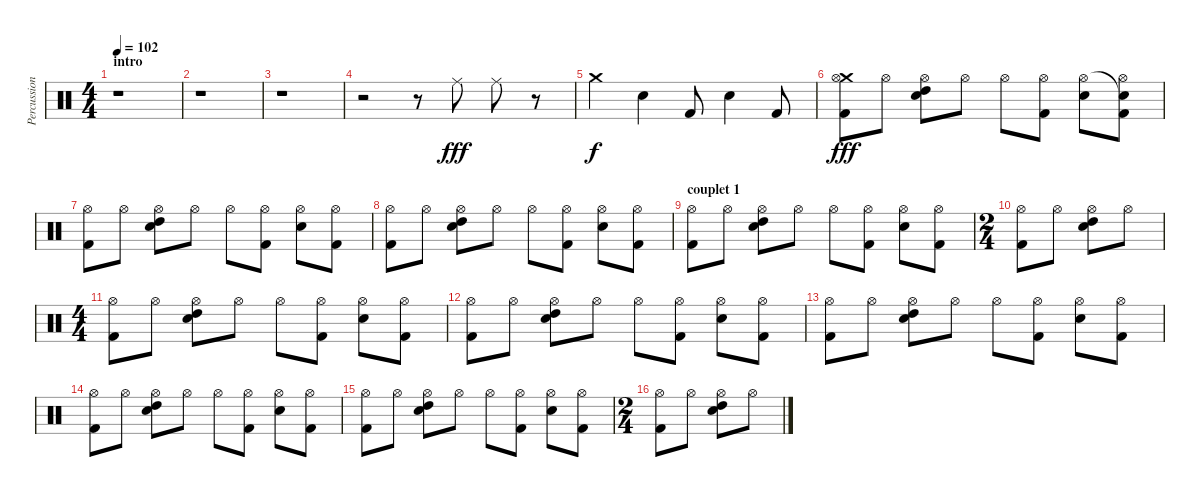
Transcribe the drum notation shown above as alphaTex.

\track ("Percussions" "Percussion") {instrument percussion}
\staff {score}
\articulation defaults
\ts (4 4)
\section ("" "intro")
\tempo 102
\clef neutral
\ks c
r.1{dy fff} |
r.1 |
r.1 |
r.2 r.8 "Ride (middle)".8 "Ride (middle)".8 r.8 |
"Crash medium (hit)".4{dy f} "Electric Snare (hit)".4 "Kick (hit) 2".8 "Electric Snare (hit)".4 "Kick (hit) 2".8 |
("Crash medium (hit)" "Hi-Hat (open)" "Kick (hit) 2").8{dy fff} "Hi-Hat (open)".8 ("Hi-Hat (open)" "High Tom (hit)" "Electric Snare (hit)").8 "Hi-Hat (open)".8 "Hi-Hat (open)".8 ("Hi-Hat (open)" "Kick (hit) 2").8 ("Hi-Hat (open)" "Electric Snare (hit)").8 ("Snare (hit)"{t} "Hi-Hat (open)" "Kick (hit) 2").8 |
("Hi-Hat (open)" "Kick (hit) 2").8 "Hi-Hat (open)".8 ("Hi-Hat (open)" "High Tom (hit)" "Electric Snare (hit)").8 "Hi-Hat (open)".8 "Hi-Hat (open)".8 ("Hi-Hat (open)" "Kick (hit) 2").8 ("Hi-Hat (open)" "Electric Snare (hit)").8 ("Hi-Hat (open)" "Kick (hit) 2").8 |
("Hi-Hat (open)" "Kick (hit) 2").8 "Hi-Hat (open)".8 ("Hi-Hat (open)" "High Tom (hit)" "Electric Snare (hit)").8 "Hi-Hat (open)".8 "Hi-Hat (open)".8 ("Hi-Hat (open)" "Kick (hit) 2").8 ("Hi-Hat (open)" "Electric Snare (hit)").8 ("Hi-Hat (open)" "Kick (hit) 2").8 |
\section ("" "couplet 1")
("Hi-Hat (open)" "Kick (hit) 2").8 "Hi-Hat (open)".8 ("Hi-Hat (open)" "High Tom (hit)" "Electric Snare (hit)").8 "Hi-Hat (open)".8 "Hi-Hat (open)".8 ("Hi-Hat (open)" "Kick (hit) 2").8 ("Hi-Hat (open)" "Electric Snare (hit)").8 ("Hi-Hat (open)" "Kick (hit) 2").8 |
\ts (2 4)
("Hi-Hat (open)" "Kick (hit) 2").8 "Hi-Hat (open)".8 ("Hi-Hat (open)" "High Tom (hit)" "Electric Snare (hit)").8 "Hi-Hat (open)".8 |
\ts (4 4)
("Hi-Hat (open)" "Kick (hit) 2").8 "Hi-Hat (open)".8 ("Hi-Hat (open)" "High Tom (hit)" "Electric Snare (hit)").8 "Hi-Hat (open)".8 "Hi-Hat (open)".8 ("Hi-Hat (open)" "Kick (hit) 2").8 ("Hi-Hat (open)" "Electric Snare (hit)").8 ("Hi-Hat (open)" "Kick (hit) 2").8 |
("Hi-Hat (open)" "Kick (hit) 2").8 "Hi-Hat (open)".8 ("Hi-Hat (open)" "High Tom (hit)" "Electric Snare (hit)").8 "Hi-Hat (open)".8 "Hi-Hat (open)".8 ("Hi-Hat (open)" "Kick (hit) 2").8 ("Hi-Hat (open)" "Electric Snare (hit)").8 ("Hi-Hat (open)" "Kick (hit) 2").8 |
("Hi-Hat (open)" "Kick (hit) 2").8 "Hi-Hat (open)".8 ("Hi-Hat (open)" "High Tom (hit)" "Electric Snare (hit)").8 "Hi-Hat (open)".8 "Hi-Hat (open)".8 ("Hi-Hat (open)" "Kick (hit) 2").8 ("Hi-Hat (open)" "Electric Snare (hit)").8 ("Hi-Hat (open)" "Kick (hit) 2").8 |
("Hi-Hat (open)" "Kick (hit) 2").8 "Hi-Hat (open)".8 ("Hi-Hat (open)" "High Tom (hit)" "Electric Snare (hit)").8 "Hi-Hat (open)".8 "Hi-Hat (open)".8 ("Hi-Hat (open)" "Kick (hit) 2").8 ("Hi-Hat (open)" "Electric Snare (hit)").8 ("Hi-Hat (open)" "Kick (hit) 2").8 |
("Hi-Hat (open)" "Kick (hit) 2").8 "Hi-Hat (open)".8 ("Hi-Hat (open)" "High Tom (hit)" "Electric Snare (hit)").8 "Hi-Hat (open)".8 "Hi-Hat (open)".8 ("Hi-Hat (open)" "Kick (hit) 2").8 ("Hi-Hat (open)" "Electric Snare (hit)").8 ("Hi-Hat (open)" "Kick (hit) 2").8 |
\ts (2 4)
("Hi-Hat (open)" "Kick (hit) 2").8 "Hi-Hat (open)".8 ("Hi-Hat (open)" "High Tom (hit)" "Electric Snare (hit)").8 "Hi-Hat (open)".8
